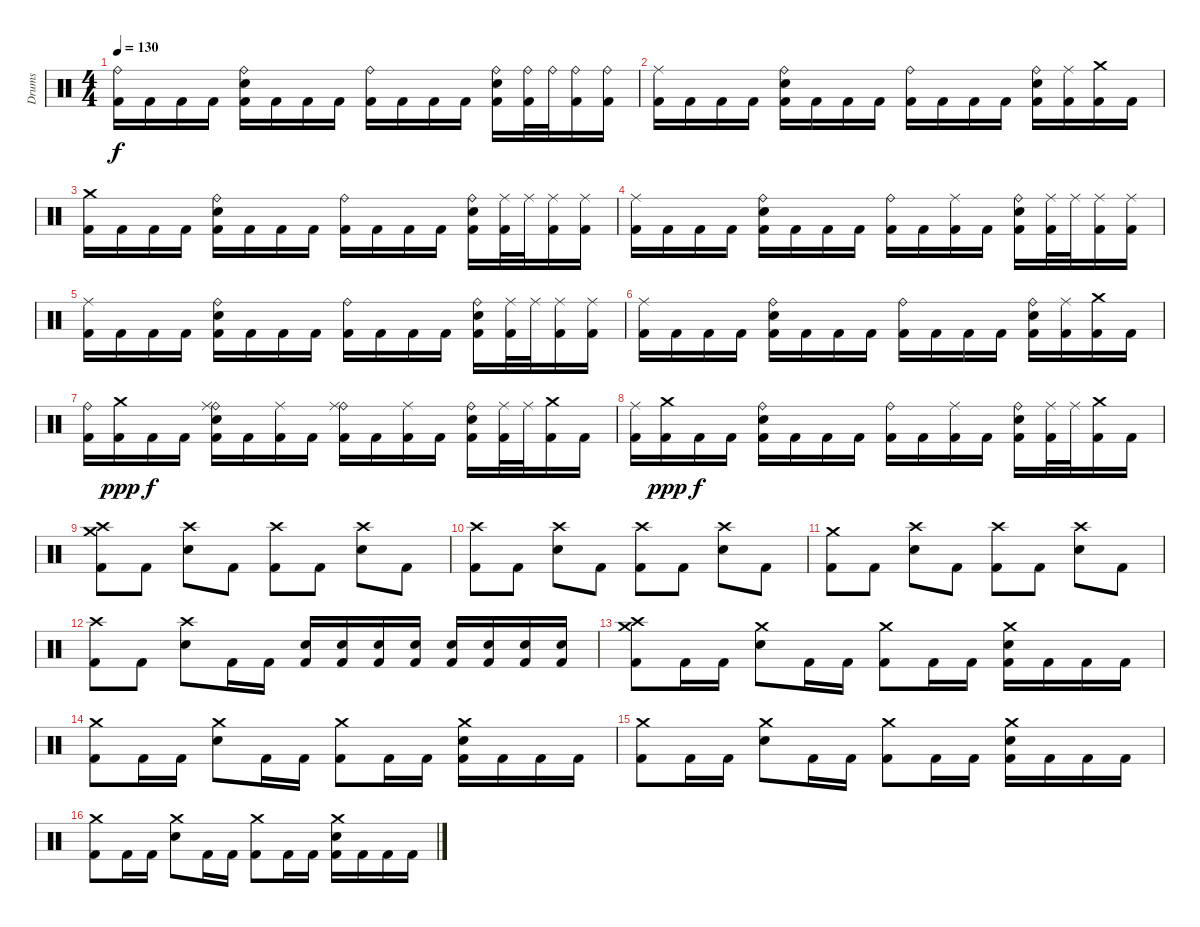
\track ("Drums" "Drums") {instrument percussion}
\staff {score}
\articulation defaults
\ts (4 4)
\tempo 130
\clef neutral
\ks c
("Ride (bell)" "Kick (hit) 2").16{dy f} "Kick (hit) 2".16 "Kick (hit) 2".16 "Kick (hit) 2".16 ("Ride (bell)" "Snare (hit) 2" "Kick (hit) 2").16 "Kick (hit) 2".16 "Kick (hit) 2".16 "Kick (hit) 2".16 ("Ride (bell)" "Kick (hit) 2").16 "Kick (hit) 2".16 "Kick (hit) 2".16 "Kick (hit) 2".16 ("Ride (bell)" "Snare (hit) 2" "Kick (hit) 2").16 ("Ride (bell)" "Kick (hit) 2").32 "Ride (bell)".32 ("Ride (bell)" "Kick (hit) 2").16 ("Ride (bell)" "Kick (hit) 2").16 |
("Ride (middle)" "Kick (hit) 2").16 "Kick (hit) 2".16 "Kick (hit) 2".16 "Kick (hit) 2".16 ("Ride (bell)" "Snare (hit) 2" "Kick (hit) 2").16 "Kick (hit) 2".16 "Kick (hit) 2".16 "Kick (hit) 2".16 ("Ride (bell)" "Kick (hit) 2").16 "Kick (hit) 2".16 "Kick (hit) 2".16 "Kick (hit) 2".16 ("Ride (bell)" "Snare (hit) 2" "Kick (hit) 2").16 ("Ride (middle)" "Kick (hit) 2").16 ("Crash medium (hit)" "Kick (hit) 2").16 "Kick (hit) 2".16 |
("Crash medium (hit)" "Kick (hit) 2").16 "Kick (hit) 2".16 "Kick (hit) 2".16 "Kick (hit) 2".16 ("Ride (bell)" "Snare (hit) 2" "Kick (hit) 2").16 "Kick (hit) 2".16 "Kick (hit) 2".16 "Kick (hit) 2".16 ("Ride (bell)" "Kick (hit) 2").16 "Kick (hit) 2".16 "Kick (hit) 2".16 "Kick (hit) 2".16 ("Ride (bell)" "Snare (hit) 2" "Kick (hit) 2").16 ("Ride (middle)" "Kick (hit) 2").32 "Ride (middle)".32 ("Ride (middle)" "Kick (hit) 2").16 ("Ride (middle)" "Kick (hit) 2").16 |
("Ride (middle)" "Kick (hit) 2").16 "Kick (hit) 2".16 "Kick (hit) 2".16 "Kick (hit) 2".16 ("Ride (bell)" "Snare (hit) 2" "Kick (hit) 2").16 "Kick (hit) 2".16 "Kick (hit) 2".16 "Kick (hit) 2".16 ("Ride (bell)" "Kick (hit) 2").16 "Kick (hit) 2".16 ("Ride (middle)" "Kick (hit) 2").16 "Kick (hit) 2".16 ("Ride (bell)" "Snare (hit) 2" "Kick (hit) 2").16 ("Ride (middle)" "Kick (hit) 2").32 "Ride (middle)".32 ("Ride (middle)" "Kick (hit) 2").16 ("Ride (middle)" "Kick (hit) 2").16 |
("Ride (middle)" "Kick (hit) 2").16 "Kick (hit) 2".16 "Kick (hit) 2".16 "Kick (hit) 2".16 ("Ride (bell)" "Snare (hit) 2" "Kick (hit) 2").16 "Kick (hit) 2".16 "Kick (hit) 2".16 "Kick (hit) 2".16 ("Ride (bell)" "Kick (hit) 2").16 "Kick (hit) 2".16 "Kick (hit) 2".16 "Kick (hit) 2".16 ("Ride (bell)" "Snare (hit) 2" "Kick (hit) 2").16 ("Ride (middle)" "Kick (hit) 2").32 "Ride (middle)".32 ("Ride (middle)" "Kick (hit) 2").16 ("Ride (middle)" "Kick (hit) 2").16 |
("Ride (middle)" "Kick (hit) 2").16 "Kick (hit) 2".16 "Kick (hit) 2".16 "Kick (hit) 2".16 ("Ride (bell)" "Snare (hit) 2" "Kick (hit) 2").16 "Kick (hit) 2".16 "Kick (hit) 2".16 "Kick (hit) 2".16 ("Ride (bell)" "Kick (hit) 2").16 "Kick (hit) 2".16 "Kick (hit) 2".16 "Kick (hit) 2".16 ("Ride (bell)" "Snare (hit) 2" "Kick (hit) 2").16 ("Ride (middle)" "Kick (hit) 2").16 ("Crash medium (hit)" "Kick (hit) 2").16 "Kick (hit) 2".16 |
("Ride (bell)" "Kick (hit) 2").16 ("Crash medium (hit)" "Kick (hit) 2").16{dy ppp} "Kick (hit) 2".16{dy f} "Kick (hit) 2".16 ("Ride (bell)" "Ride (middle)" "Snare (hit) 2" "Kick (hit) 2").16 "Kick (hit) 2".16 ("Ride (middle)" "Kick (hit) 2").16 "Kick (hit) 2".16 ("Ride (bell)" "Ride (middle)" "Kick (hit) 2").16 "Kick (hit) 2".16 ("Ride (middle)" "Kick (hit) 2").16 "Kick (hit) 2".16 ("Ride (bell)" "Snare (hit) 2" "Kick (hit) 2").16 ("Ride (middle)" "Kick (hit) 2").32 "Ride (middle)".32 ("Crash medium (hit)" "Kick (hit) 2").16 "Kick (hit) 2".16 |
("Ride (middle)" "Kick (hit) 2").16 ("Crash medium (hit)" "Kick (hit) 2").16{dy ppp} "Kick (hit) 2".16{dy f} "Kick (hit) 2".16 ("Ride (bell)" "Snare (hit) 2" "Kick (hit) 2").16 "Kick (hit) 2".16 "Kick (hit) 2".16 "Kick (hit) 2".16 ("Ride (bell)" "Kick (hit) 2").16 "Kick (hit) 2".16 ("Ride (middle)" "Kick (hit) 2").16 "Kick (hit) 2".16 ("Ride (bell)" "Snare (hit) 2" "Kick (hit) 2").16 ("Ride (middle)" "Kick (hit) 2").32 "Ride (middle)".32 ("Crash medium (hit)" "Kick (hit) 2").16 "Kick (hit) 2".16 |
("Crash high (hit)" "Crash medium (hit)" "Kick (hit) 2").8 "Kick (hit) 2".8 ("Crash high (hit)" "Snare (hit) 2").8 "Kick (hit) 2".8 ("Crash high (hit)" "Kick (hit) 2").8 "Kick (hit) 2".8 ("Crash high (hit)" "Snare (hit) 2").8 "Kick (hit) 2".8 |
("Crash high (hit)" "Kick (hit) 2").8 "Kick (hit) 2".8 ("Crash high (hit)" "Snare (hit) 2").8 "Kick (hit) 2".8 ("Crash high (hit)" "Kick (hit) 2").8 "Kick (hit) 2".8 ("Crash high (hit)" "Snare (hit) 2").8 "Kick (hit) 2".8 |
("Crash medium (hit)" "Kick (hit) 2").8 "Kick (hit) 2".8 ("Crash high (hit)" "Snare (hit) 2").8 "Kick (hit) 2".8 ("Crash high (hit)" "Kick (hit) 2").8 "Kick (hit) 2".8 ("Crash high (hit)" "Snare (hit) 2").8 "Kick (hit) 2".8 |
("Crash high (hit)" "Kick (hit) 2").8 "Kick (hit) 2".8 ("Crash high (hit)" "Snare (hit) 2").8 "Kick (hit) 2".16 "Kick (hit) 2".16 ("Snare (hit) 2" "Kick (hit) 2").16 ("Snare (hit) 2" "Kick (hit) 2").16 ("Snare (hit) 2" "Kick (hit) 2").16 ("Snare (hit) 2" "Kick (hit) 2").16 ("Snare (hit) 2" "Kick (hit) 2").16 ("Snare (hit) 2" "Kick (hit) 2").16 ("Snare (hit) 2" "Kick (hit) 2").16 ("Snare (hit) 2" "Kick (hit) 2").16 |
("Crash high (hit)" "Crash medium (hit)" "Kick (hit) 2").8 "Kick (hit) 2".16 "Kick (hit) 2".16 ("Crash medium (hit)" "Snare (hit) 2").8 "Kick (hit) 2".16 "Kick (hit) 2".16 ("Crash medium (hit)" "Kick (hit) 2").8 "Kick (hit) 2".16 "Kick (hit) 2".16 ("Crash medium (hit)" "Snare (hit) 2" "Kick (hit) 2").16 "Kick (hit) 2".16 "Kick (hit) 2".16 "Kick (hit) 2".16 |
("Crash medium (hit)" "Kick (hit) 2").8 "Kick (hit) 2".16 "Kick (hit) 2".16 ("Crash medium (hit)" "Snare (hit) 2").8 "Kick (hit) 2".16 "Kick (hit) 2".16 ("Crash medium (hit)" "Kick (hit) 2").8 "Kick (hit) 2".16 "Kick (hit) 2".16 ("Crash medium (hit)" "Snare (hit) 2" "Kick (hit) 2").16 "Kick (hit) 2".16 "Kick (hit) 2".16 "Kick (hit) 2".16 |
("Crash medium (hit)" "Kick (hit) 2").8 "Kick (hit) 2".16 "Kick (hit) 2".16 ("Crash medium (hit)" "Snare (hit) 2").8 "Kick (hit) 2".16 "Kick (hit) 2".16 ("Crash medium (hit)" "Kick (hit) 2").8 "Kick (hit) 2".16 "Kick (hit) 2".16 ("Crash medium (hit)" "Snare (hit) 2" "Kick (hit) 2").16 "Kick (hit) 2".16 "Kick (hit) 2".16 "Kick (hit) 2".16 |
("Crash medium (hit)" "Kick (hit) 2").8 "Kick (hit) 2".16 "Kick (hit) 2".16 ("Crash medium (hit)" "Snare (hit) 2").8 "Kick (hit) 2".16 "Kick (hit) 2".16 ("Crash medium (hit)" "Kick (hit) 2").8 "Kick (hit) 2".16 "Kick (hit) 2".16 ("Crash medium (hit)" "Snare (hit) 2" "Kick (hit) 2").16 "Kick (hit) 2".16 "Kick (hit) 2".16 "Kick (hit) 2".16
